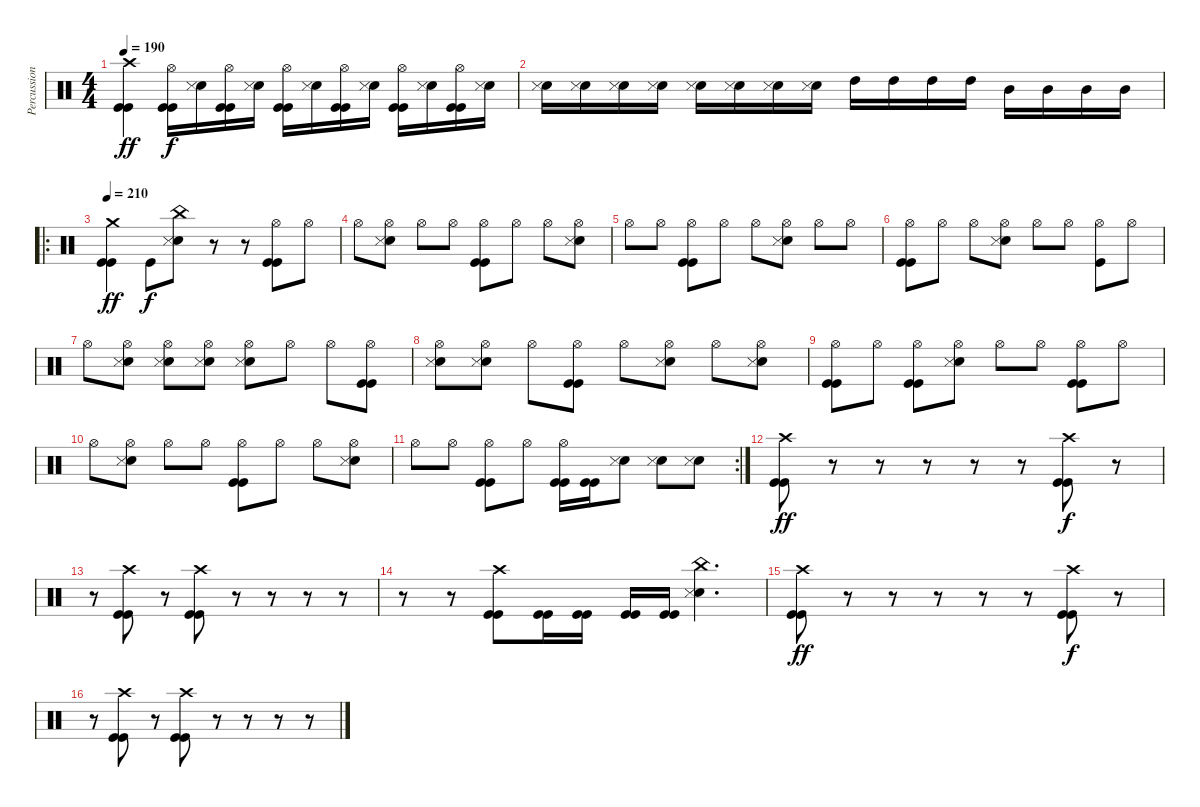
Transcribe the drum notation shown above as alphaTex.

\track ("Percussion" "Percussion") {instrument percussion}
\staff {score}
\articulation defaults
\ts (4 4)
\tempo 190
\clef neutral
\ks c
("Crash high (hit)" "Kick (hit)" "Kick (hit)").4{dy ff} ("Hi-Hat (open)" "Kick (hit)" "Kick (hit)").16{dy f} ("Snare (hit) 2" "Snare (side stick) 3").16 ("Hi-Hat (open)" "Kick (hit)" "Kick (hit)").16 ("Snare (hit) 2" "Snare (side stick) 3").16 ("Hi-Hat (open)" "Kick (hit)" "Kick (hit)").16 ("Snare (hit) 2" "Snare (side stick) 3").16 ("Hi-Hat (open)" "Kick (hit)" "Kick (hit)").16 ("Snare (hit) 2" "Snare (side stick) 3").16 ("Hi-Hat (open)" "Kick (hit)" "Kick (hit)").16 ("Snare (hit) 2" "Snare (side stick) 3").16 ("Hi-Hat (open)" "Kick (hit)" "Kick (hit)").16 ("Snare (hit) 2" "Snare (side stick) 3").16 |
("Snare (hit) 2" "Snare (side stick) 3").16 ("Snare (hit) 2" "Snare (side stick) 3").16 ("Snare (hit) 2" "Snare (side stick) 3").16 ("Snare (hit) 2" "Snare (side stick) 3").16 ("Snare (hit) 2" "Snare (side stick) 3").16 ("Snare (hit) 2" "Snare (side stick) 3").16 ("Snare (hit) 2" "Snare (side stick) 3").16 ("Snare (hit) 2" "Snare (side stick) 3").16 "High Tom (hit)".16 "High Tom (hit)".16 "High Tom (hit)".16 "High Tom (hit)".16 "Mid Tom (hit)".16 "Mid Tom (hit)".16 "Mid Tom (hit)".16 "Mid Tom (hit)".16 |
\ro
\tempo 210
("Crash medium (hit)" "Kick (hit)" "Kick (hit)").4{dy ff} "Kick (hit)".8{dy f} ("China (hit)" "Snare (hit) 2" "Snare (side stick) 3").8 r.8 r.8 ("Hi-Hat (open)" "Kick (hit)" "Kick (hit)").8 "Hi-Hat (open)".8 |
"Hi-Hat (open)".8 ("Hi-Hat (open)" "Snare (hit) 2" "Snare (side stick) 3").8 "Hi-Hat (open)".8 "Hi-Hat (open)".8 ("Hi-Hat (open)" "Kick (hit)" "Kick (hit)").8 "Hi-Hat (open)".8 "Hi-Hat (open)".8 ("Hi-Hat (open)" "Snare (hit) 2" "Snare (side stick) 3").8 |
"Hi-Hat (open)".8 "Hi-Hat (open)".8 ("Hi-Hat (open)" "Kick (hit)" "Kick (hit)").8 "Hi-Hat (open)".8 "Hi-Hat (open)".8 ("Hi-Hat (open)" "Snare (hit) 2" "Snare (side stick) 3").8 "Hi-Hat (open)".8 "Hi-Hat (open)".8 |
("Hi-Hat (open)" "Kick (hit)" "Kick (hit)").8 "Hi-Hat (open)".8 "Hi-Hat (open)".8 ("Hi-Hat (open)" "Snare (hit) 2" "Snare (side stick) 3").8 "Hi-Hat (open)".8 "Hi-Hat (open)".8 ("Hi-Hat (open)" "Kick (hit)").8 "Hi-Hat (open)".8 |
"Hi-Hat (open)".8 ("Hi-Hat (open)" "Snare (hit) 2" "Snare (side stick) 3").8 ("Hi-Hat (open)" "Snare (hit) 2" "Snare (side stick) 3").8 ("Hi-Hat (open)" "Snare (hit) 2" "Snare (side stick) 3").8 ("Hi-Hat (open)" "Snare (hit) 2" "Snare (side stick) 3").8 "Hi-Hat (open)".8 "Hi-Hat (open)".8 ("Hi-Hat (open)" "Kick (hit)" "Kick (hit)").8 |
("Hi-Hat (open)" "Snare (hit) 2" "Snare (side stick) 3").8 ("Hi-Hat (open)" "Snare (hit) 2" "Snare (side stick) 3").8 "Hi-Hat (open)".8 ("Hi-Hat (open)" "Kick (hit)" "Kick (hit)").8 "Hi-Hat (open)".8 ("Hi-Hat (open)" "Snare (hit) 2" "Snare (side stick) 3").8 "Hi-Hat (open)".8 ("Hi-Hat (open)" "Snare (hit) 2" "Snare (side stick) 3").8 |
("Hi-Hat (open)" "Kick (hit)" "Kick (hit)").8 "Hi-Hat (open)".8 ("Hi-Hat (open)" "Kick (hit)" "Kick (hit)").8 ("Hi-Hat (open)" "Snare (hit) 2" "Snare (side stick) 3").8 "Hi-Hat (open)".8 "Hi-Hat (open)".8 ("Hi-Hat (open)" "Kick (hit)" "Kick (hit)").8 "Hi-Hat (open)".8 |
"Hi-Hat (open)".8 ("Hi-Hat (open)" "Snare (hit) 2" "Snare (side stick) 3").8 "Hi-Hat (open)".8 "Hi-Hat (open)".8 ("Hi-Hat (open)" "Kick (hit)" "Kick (hit)").8 "Hi-Hat (open)".8 "Hi-Hat (open)".8 ("Hi-Hat (open)" "Snare (hit) 2" "Snare (side stick) 3").8 |
\rc 2 "Hi-Hat (open)".8 "Hi-Hat (open)".8
("Hi-Hat (open)" "Kick (hit)" "Kick (hit)").8 "Hi-Hat (open)".8 ("Hi-Hat (open)" "Kick (hit)" "Kick (hit)").16 ("Kick (hit)" "Kick (hit)").16 ("Snare (hit) 2" "Snare (side stick) 3").8 ("Snare (hit) 2" "Snare (side stick) 3").8 ("Snare (hit) 2" "Snare (side stick) 3").8 |
("Crash high (hit)" "Kick (hit)" "Kick (hit)").8{dy ff} r.8 r.8 r.8 r.8 r.8 ("Crash high (hit)" "Kick (hit)" "Kick (hit)").8{dy f} r.8 |
r.8 ("Crash high (hit)" "Kick (hit)" "Kick (hit)").8 r.8 ("Crash high (hit)" "Kick (hit)" "Kick (hit)").8 r.8 r.8 r.8 r.8 |
r.8 r.8 ("Crash high (hit)" "Kick (hit)" "Kick (hit)").8 ("Kick (hit)" "Kick (hit)").16 ("Kick (hit)" "Kick (hit)").16 ("Kick (hit)" "Kick (hit)").16 ("Kick (hit)" "Kick (hit)").16 ("China (hit)" "Snare (hit) 2" "Snare (side stick) 3").4{d} |
("Crash high (hit)" "Kick (hit)" "Kick (hit)").8{dy ff} r.8 r.8 r.8 r.8 r.8 ("Crash high (hit)" "Kick (hit)" "Kick (hit)").8{dy f} r.8 |
r.8 ("Crash high (hit)" "Kick (hit)" "Kick (hit)").8 r.8 ("Crash high (hit)" "Kick (hit)" "Kick (hit)").8 r.8 r.8 r.8 r.8
